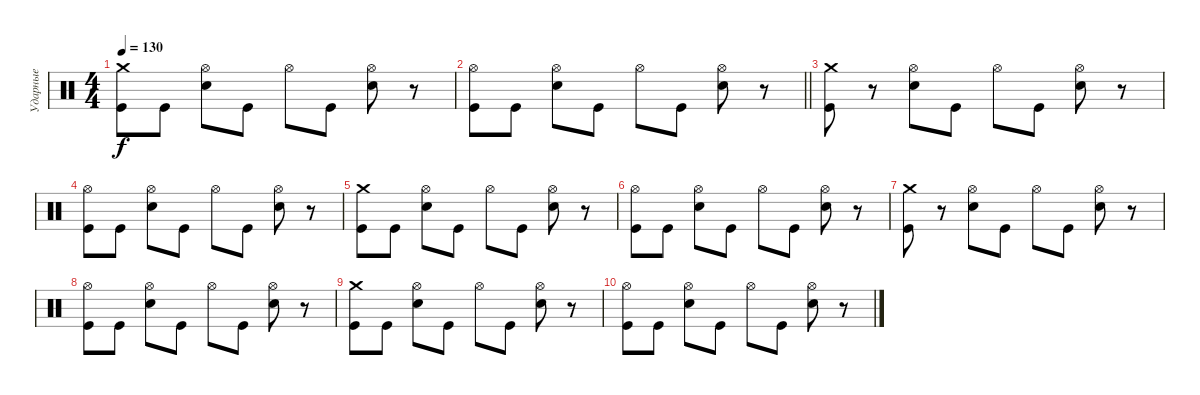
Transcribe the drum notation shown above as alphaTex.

\track ("Ударные" "Ударные") {instrument percussion}
\staff {score}
\articulation defaults
\ts (4 4)
\tempo 130
\clef neutral
\ks c
("Crash medium (hit)" "Kick (hit)").8{dy f} "Kick (hit)".8 ("Hi-Hat (open)" "Electric Snare (hit)").8 "Kick (hit)".8 "Hi-Hat (open)".8 "Kick (hit)".8 ("Hi-Hat (open)" "Electric Snare (hit)").8 r.8 |
\barLineRight lightlight
("Hi-Hat (open)" "Kick (hit)").8 "Kick (hit)".8 ("Hi-Hat (open)" "Electric Snare (hit)").8 "Kick (hit)".8 "Hi-Hat (open)".8 "Kick (hit)".8 ("Hi-Hat (open)" "Electric Snare (hit)").8 r.8 |
\section ("" " ")
("Crash medium (hit)" "Kick (hit)").8 r.8 ("Hi-Hat (open)" "Electric Snare (hit)").8 "Kick (hit)".8 "Hi-Hat (open)".8 "Kick (hit)".8 ("Hi-Hat (open)" "Electric Snare (hit)").8 r.8 |
("Hi-Hat (open)" "Kick (hit)").8 "Kick (hit)".8 ("Hi-Hat (open)" "Electric Snare (hit)").8 "Kick (hit)".8 "Hi-Hat (open)".8 "Kick (hit)".8 ("Hi-Hat (open)" "Electric Snare (hit)").8 r.8 |
("Crash medium (hit)" "Kick (hit)").8 "Kick (hit)".8 ("Hi-Hat (open)" "Electric Snare (hit)").8 "Kick (hit)".8 "Hi-Hat (open)".8 "Kick (hit)".8 ("Hi-Hat (open)" "Electric Snare (hit)").8 r.8 |
("Hi-Hat (open)" "Kick (hit)").8 "Kick (hit)".8 ("Hi-Hat (open)" "Electric Snare (hit)").8 "Kick (hit)".8 "Hi-Hat (open)".8 "Kick (hit)".8 ("Hi-Hat (open)" "Electric Snare (hit)").8 r.8 |
("Crash medium (hit)" "Kick (hit)").8 r.8 ("Hi-Hat (open)" "Electric Snare (hit)").8 "Kick (hit)".8 "Hi-Hat (open)".8 "Kick (hit)".8 ("Hi-Hat (open)" "Electric Snare (hit)").8 r.8 |
("Hi-Hat (open)" "Kick (hit)").8 "Kick (hit)".8 ("Hi-Hat (open)" "Electric Snare (hit)").8 "Kick (hit)".8 "Hi-Hat (open)".8 "Kick (hit)".8 ("Hi-Hat (open)" "Electric Snare (hit)").8 r.8 |
("Crash medium (hit)" "Kick (hit)").8 "Kick (hit)".8 ("Hi-Hat (open)" "Electric Snare (hit)").8 "Kick (hit)".8 "Hi-Hat (open)".8 "Kick (hit)".8 ("Hi-Hat (open)" "Electric Snare (hit)").8 r.8 |
("Hi-Hat (open)" "Kick (hit)").8 "Kick (hit)".8 ("Hi-Hat (open)" "Electric Snare (hit)").8 "Kick (hit)".8 "Hi-Hat (open)".8 "Kick (hit)".8 ("Hi-Hat (open)" "Electric Snare (hit)").8 r.8
